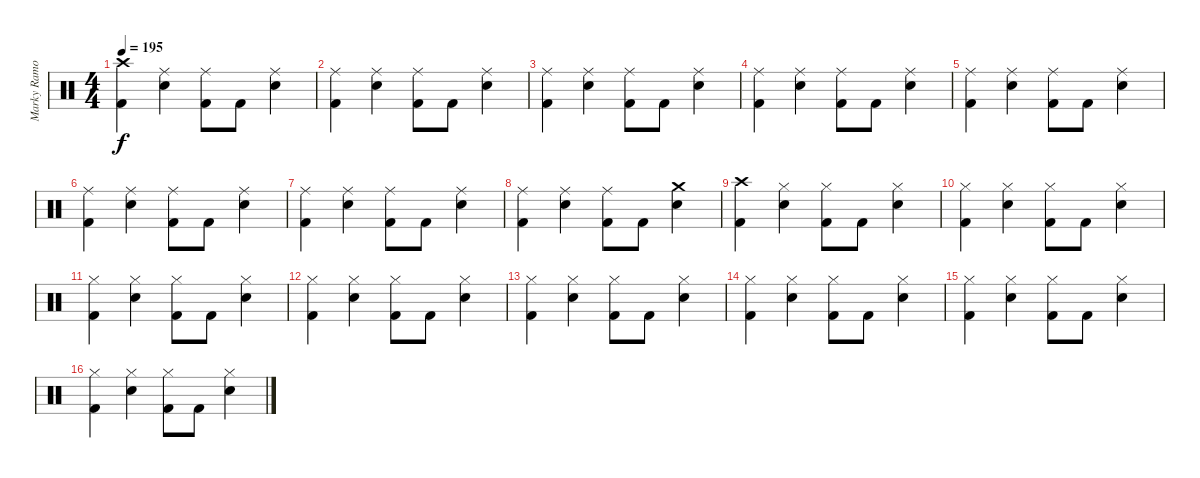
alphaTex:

\track ("Marky Ramone" "Marky Ramo") {instrument percussion}
\staff {score}
\articulation defaults
\ts (4 4)
\tempo 195
\clef neutral
\ks c
("Crash high (hit)" "Kick (hit) 2").4{dy f} ("Ride (middle)" "Snare (hit) 2").4 ("Ride (middle)" "Kick (hit) 2").8 "Kick (hit) 2".8 ("Ride (middle)" "Snare (hit) 2").4 |
("Ride (middle)" "Kick (hit) 2").4 ("Ride (middle)" "Snare (hit) 2").4 ("Ride (middle)" "Kick (hit) 2").8 "Kick (hit) 2".8 ("Ride (middle)" "Snare (hit) 2").4 |
("Ride (middle)" "Kick (hit) 2").4 ("Ride (middle)" "Snare (hit) 2").4 ("Ride (middle)" "Kick (hit) 2").8 "Kick (hit) 2".8 ("Ride (middle)" "Snare (hit) 2").4 |
("Ride (middle)" "Kick (hit) 2").4 ("Ride (middle)" "Snare (hit) 2").4 ("Ride (middle)" "Kick (hit) 2").8 "Kick (hit) 2".8 ("Ride (middle)" "Snare (hit) 2").4 |
("Ride (middle)" "Kick (hit) 2").4 ("Ride (middle)" "Snare (hit) 2").4 ("Ride (middle)" "Kick (hit) 2").8 "Kick (hit) 2".8 ("Ride (middle)" "Snare (hit) 2").4 |
("Ride (middle)" "Kick (hit) 2").4 ("Ride (middle)" "Snare (hit) 2").4 ("Ride (middle)" "Kick (hit) 2").8 "Kick (hit) 2".8 ("Ride (middle)" "Snare (hit) 2").4 |
("Ride (middle)" "Kick (hit) 2").4 ("Ride (middle)" "Snare (hit) 2").4 ("Ride (middle)" "Kick (hit) 2").8 "Kick (hit) 2".8 ("Ride (middle)" "Snare (hit) 2").4 |
("Ride (middle)" "Kick (hit) 2").4 ("Ride (middle)" "Snare (hit) 2").4 ("Ride (middle)" "Kick (hit) 2").8 "Kick (hit) 2".8 ("Crash medium (hit)" "Snare (hit) 2").4 |
("Crash high (hit)" "Kick (hit) 2").4 ("Hi-Hat (closed)" "Snare (hit) 2").4 ("Hi-Hat (closed)" "Kick (hit) 2").8 "Kick (hit) 2".8 ("Hi-Hat (closed)" "Snare (hit) 2").4 |
("Hi-Hat (closed)" "Kick (hit) 2").4 ("Hi-Hat (closed)" "Snare (hit) 2").4 ("Hi-Hat (closed)" "Kick (hit) 2").8 "Kick (hit) 2".8 ("Hi-Hat (closed)" "Snare (hit) 2").4 |
("Hi-Hat (closed)" "Kick (hit) 2").4 ("Hi-Hat (closed)" "Snare (hit) 2").4 ("Hi-Hat (closed)" "Kick (hit) 2").8 "Kick (hit) 2".8 ("Hi-Hat (closed)" "Snare (hit) 2").4 |
("Hi-Hat (closed)" "Kick (hit) 2").4 ("Hi-Hat (closed)" "Snare (hit) 2").4 ("Hi-Hat (closed)" "Kick (hit) 2").8 "Kick (hit) 2".8 ("Hi-Hat (closed)" "Snare (hit) 2").4 |
("Hi-Hat (closed)" "Kick (hit) 2").4 ("Hi-Hat (closed)" "Snare (hit) 2").4 ("Hi-Hat (closed)" "Kick (hit) 2").8 "Kick (hit) 2".8 ("Hi-Hat (closed)" "Snare (hit) 2").4 |
("Hi-Hat (closed)" "Kick (hit) 2").4 ("Hi-Hat (closed)" "Snare (hit) 2").4 ("Hi-Hat (closed)" "Kick (hit) 2").8 "Kick (hit) 2".8 ("Hi-Hat (closed)" "Snare (hit) 2").4 |
("Hi-Hat (closed)" "Kick (hit) 2").4 ("Hi-Hat (closed)" "Snare (hit) 2").4 ("Hi-Hat (closed)" "Kick (hit) 2").8 "Kick (hit) 2".8 ("Hi-Hat (closed)" "Snare (hit) 2").4 |
("Hi-Hat (closed)" "Kick (hit) 2").4 ("Hi-Hat (closed)" "Snare (hit) 2").4 ("Hi-Hat (closed)" "Kick (hit) 2").8 "Kick (hit) 2".8 ("Hi-Hat (closed)" "Snare (hit) 2").4
